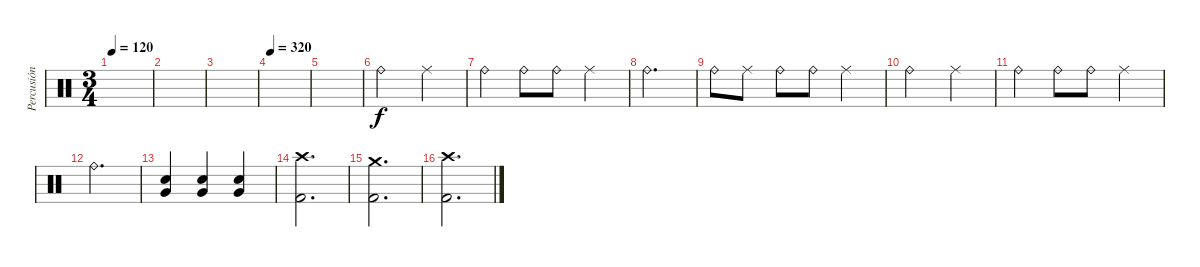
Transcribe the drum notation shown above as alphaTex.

\track ("Percusión" "Percusión") {instrument percussion}
\staff {score}
\articulation defaults
\ts (3 4)
\tempo 120
\clef neutral
\ks c
|
|
|
\tempo 320
|
|
"Ride (bell)".2 "Ride (middle)".4 |
"Ride (bell)".4 "Ride (bell)".8 "Ride (bell)".8 "Ride (middle)".4 |
"Ride (bell)".2{d} |
"Ride (bell)".8 "Ride (middle)".8 "Ride (bell)".8 "Ride (bell)".8 "Ride (middle)".4 |
"Ride (bell)".2 "Ride (middle)".4 |
"Ride (bell)".4 "Ride (bell)".8 "Ride (bell)".8 "Ride (middle)".4 |
"Ride (bell)".2{d} |
("Snare (hit) 2" "Very Low Tom (hit)").4 ("Snare (hit) 2" "Very Low Tom (hit)").4 ("Snare (hit) 2" "Very Low Tom (hit)").4 |
("Crash high (hit)" "Kick (hit) 2").2{d} |
("Crash medium (hit)" "Kick (hit) 2").2{d} |
("Crash high (hit)" "Kick (hit) 2").2{d}
